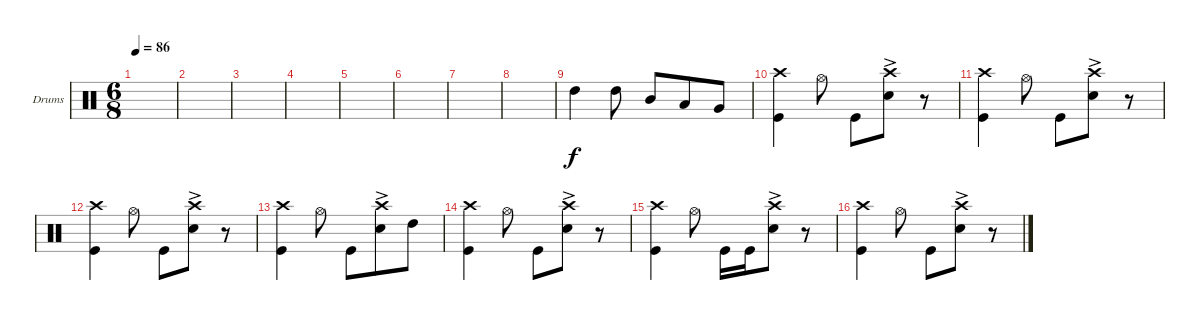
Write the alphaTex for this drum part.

\defaultSystemsLayout 4
\bracketExtendMode groupsimilarinstruments
\firstSystemTrackNameOrientation horizontal
\otherSystemsTrackNameOrientation horizontal
\track ("Drumkit" "Drums") {instrument percussion}
\staff {score}
\articulation defaults
\ts (6 8)
\tempo 86
\clef neutral
\ks c
|
|
|
|
|
|
|
|
"High Tom (hit)".4 "High Tom (hit)".8 "Mid Tom (hit)".8 "Low Tom (hit)".8 "Very Low Tom (hit)".8 |
("Kick (hit)" "Crash high (hit)").4 "Hi-Hat (open)".8 "Kick (hit)".8 ("Snare (hit) 2"{ac} "Crash high (hit)").8 r.8 |
("Kick (hit)" "Crash high (hit)").4 "Hi-Hat (open)".8 "Kick (hit)".8 ("Snare (hit) 2"{ac} "Crash high (hit)").8 r.8 |
("Kick (hit)" "Crash high (hit)").4 "Hi-Hat (open)".8 "Kick (hit)".8 ("Snare (hit) 2"{ac} "Crash high (hit)").8 r.8 |
("Kick (hit)" "Crash high (hit)").4 "Hi-Hat (open)".8 "Kick (hit)".8 ("Snare (hit) 2"{ac} "Crash high (hit)").8 "High Tom (hit)".8 |
("Kick (hit)" "Crash high (hit)").4 "Hi-Hat (open)".8 "Kick (hit)".8 ("Snare (hit) 2"{ac} "Crash high (hit)").8 r.8 |
("Kick (hit)" "Crash high (hit)").4 "Hi-Hat (open)".8 "Kick (hit)".16 "Kick (hit)".16 ("Snare (hit) 2"{ac} "Crash high (hit)").8 r.8 |
("Kick (hit)" "Crash high (hit)").4 "Hi-Hat (open)".8 "Kick (hit)".8 ("Snare (hit) 2"{ac} "Crash high (hit)").8 r.8
